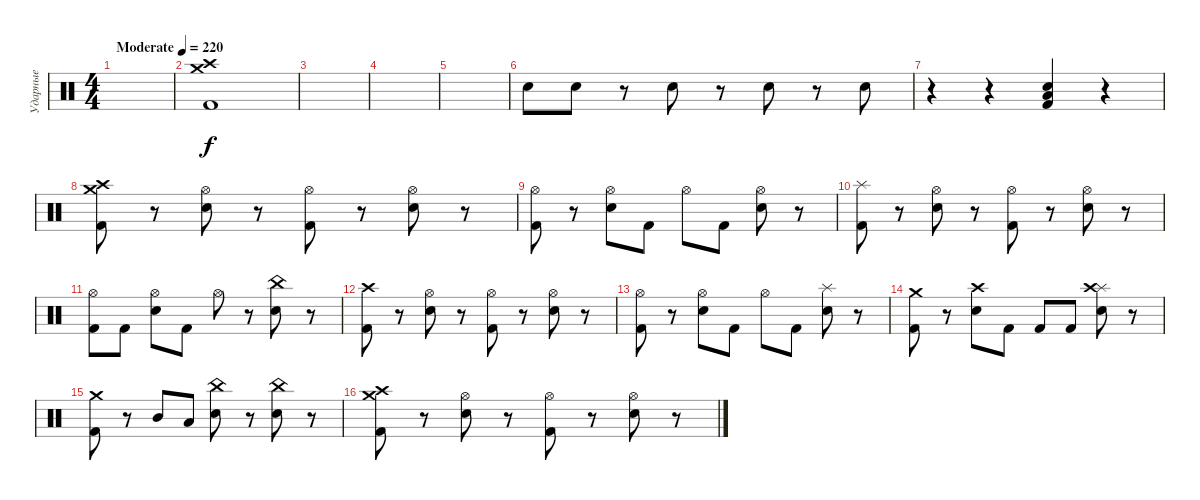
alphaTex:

\track ("Ударные" "Ударные") {instrument percussion}
\staff {score}
\articulation defaults
\ts (4 4)
\tempo (220 "Moderate")
\clef neutral
\ks c
|
("Kick (hit) 2" "Crash high (hit)" "Crash medium (hit)").1 |
|
|
|
"Electric Snare (hit)".8 "Electric Snare (hit)".8 r.8 "Electric Snare (hit)".8 r.8 "Electric Snare (hit)".8 r.8 "Electric Snare (hit)".8 |
r.4 r.4 ("Kick (hit) 2" "Low Floor Tom (hit)" "Electric Snare (hit)").4 r.4 |
("Kick (hit) 2" "Crash high (hit)" "Crash medium (hit)").8 r.8 ("Electric Snare (hit)" "Hi-Hat (open)").8 r.8 ("Kick (hit) 2" "Hi-Hat (open)").8 r.8 ("Electric Snare (hit)" "Hi-Hat (open)").8 r.8 |
("Kick (hit) 2" "Hi-Hat (open)").8 r.8 ("Electric Snare (hit)" "Hi-Hat (open)").8 "Kick (hit) 2".8 "Hi-Hat (open)".8 "Kick (hit) 2".8 ("Electric Snare (hit)" "Hi-Hat (open)").8 r.8 |
("Kick (hit) 2" "Splash (hit)").8 r.8 ("Electric Snare (hit)" "Hi-Hat (open)").8 r.8 ("Kick (hit) 2" "Hi-Hat (open)").8 r.8 ("Electric Snare (hit)" "Hi-Hat (open)").8 r.8 |
("Kick (hit) 2" "Hi-Hat (open)").8 "Kick (hit) 2".8 ("Electric Snare (hit)" "Hi-Hat (open)").8 "Kick (hit) 2".8 "Hi-Hat (open)".8 r.8 ("Electric Snare (hit)" "China (hit)").8 r.8 |
("Kick (hit) 2" "Crash high (hit)").8 r.8 ("Electric Snare (hit)" "Hi-Hat (open)").8 r.8 ("Kick (hit) 2" "Hi-Hat (open)").8 r.8 ("Electric Snare (hit)" "Hi-Hat (open)").8 r.8 |
("Kick (hit) 2" "Hi-Hat (open)").8 r.8 ("Electric Snare (hit)" "Hi-Hat (open)").8 "Kick (hit) 2".8 "Hi-Hat (open)".8 "Kick (hit) 2".8 ("Electric Snare (hit)" "Splash (hit)").8 r.8 |
("Kick (hit) 2" "Crash medium (hit)").8 r.8 ("Electric Snare (hit)" "Crash high (hit)").8 "Kick (hit) 2".8 "Kick (hit) 2".8 "Kick (hit) 2".8 ("Electric Snare (hit)" "Splash (hit)" "Crash high (hit)").8 r.8 |
("Kick (hit) 2" "Crash medium (hit)").8 r.8 "Mid Tom (hit)".8 "Low Tom (hit)".8 ("Electric Snare (hit)" "China (hit)").8 r.8 ("Electric Snare (hit)" "China (hit)").8 r.8 |
("Kick (hit) 2" "Crash high (hit)" "Crash medium (hit)").8 r.8 ("Electric Snare (hit)" "Hi-Hat (open)").8 r.8 ("Kick (hit) 2" "Hi-Hat (open)").8 r.8 ("Electric Snare (hit)" "Hi-Hat (open)").8 r.8
